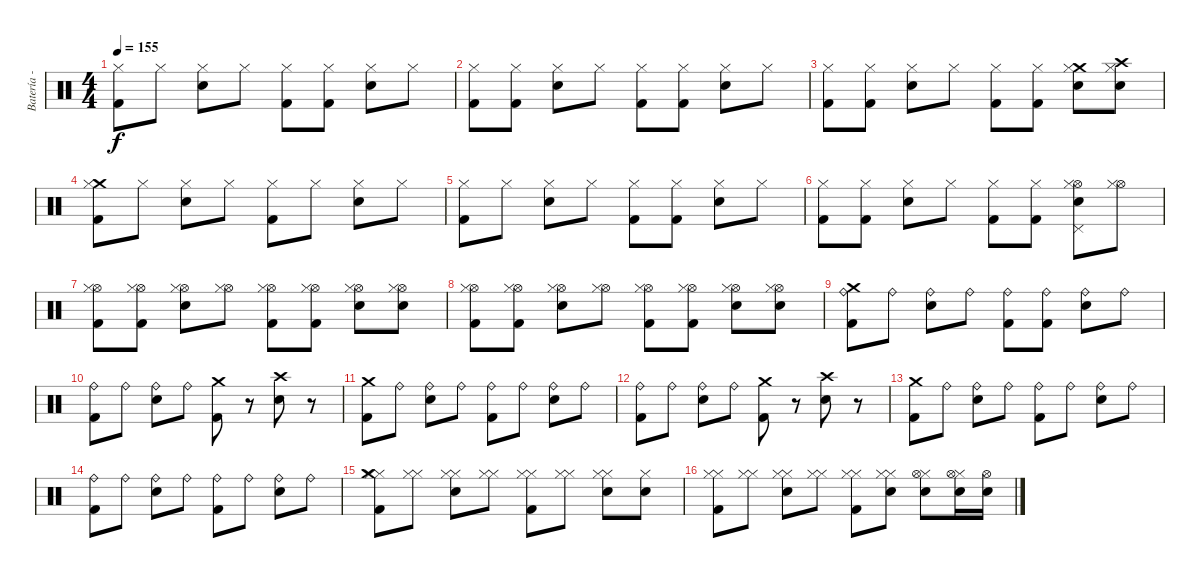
\track ("Batería - Edu" "Batería - ") {instrument percussion}
\staff {score}
\articulation defaults
\ts (4 4)
\tempo 155
\clef neutral
\ks c
("Kick (hit) 2" "Hi-Hat (closed)").8{dy f} "Hi-Hat (closed)".8 ("Electric Snare (hit)" "Hi-Hat (closed)").8 "Hi-Hat (closed)".8 ("Kick (hit) 2" "Hi-Hat (closed)").8 ("Kick (hit) 2" "Hi-Hat (closed)").8 ("Electric Snare (hit)" "Hi-Hat (closed)").8 "Hi-Hat (closed)".8 |
("Kick (hit) 2" "Hi-Hat (closed)").8 ("Kick (hit) 2" "Hi-Hat (closed)").8 ("Electric Snare (hit)" "Hi-Hat (closed)").8 "Hi-Hat (closed)".8 ("Kick (hit) 2" "Hi-Hat (closed)").8 ("Kick (hit) 2" "Hi-Hat (closed)").8 ("Electric Snare (hit)" "Hi-Hat (closed)").8 "Hi-Hat (closed)".8 |
("Kick (hit) 2" "Hi-Hat (closed)").8 ("Kick (hit) 2" "Hi-Hat (closed)").8 ("Electric Snare (hit)" "Hi-Hat (closed)").8 "Hi-Hat (closed)".8 ("Kick (hit) 2" "Hi-Hat (closed)").8 ("Kick (hit) 2" "Hi-Hat (closed)").8 ("Crash medium (hit)" "Electric Snare (hit)" "Hi-Hat (closed)").8 ("Crash high (hit)" "Electric Snare (hit)" "Hi-Hat (closed)").8 |
("Crash medium (hit)" "Kick (hit) 2" "Hi-Hat (closed)").8 "Hi-Hat (closed)".8 ("Electric Snare (hit)" "Hi-Hat (closed)").8 "Hi-Hat (closed)".8 ("Kick (hit) 2" "Hi-Hat (closed)").8 "Hi-Hat (closed)".8 ("Electric Snare (hit)" "Hi-Hat (closed)").8 "Hi-Hat (closed)".8 |
("Kick (hit) 2" "Hi-Hat (closed)").8 "Hi-Hat (closed)".8 ("Electric Snare (hit)" "Hi-Hat (closed)").8 "Hi-Hat (closed)".8 ("Kick (hit) 2" "Hi-Hat (closed)").8 ("Kick (hit) 2" "Hi-Hat (closed)").8 ("Electric Snare (hit)" "Hi-Hat (closed)").8 "Hi-Hat (closed)".8 |
("Kick (hit) 2" "Hi-Hat (closed)").8 ("Kick (hit) 2" "Hi-Hat (closed)").8 ("Electric Snare (hit)" "Hi-Hat (closed)").8 "Hi-Hat (closed)".8 ("Kick (hit) 2" "Hi-Hat (closed)").8 ("Kick (hit) 2" "Hi-Hat (closed)").8 ("Hi-Hat (open)" "Pedal Hi-Hat (hit)" "Electric Snare (hit)" "Hi-Hat (closed)").8 ("Hi-Hat (open)" "Hi-Hat (closed)").8 |
("Hi-Hat (open)" "Kick (hit) 2" "Hi-Hat (closed)").8 ("Hi-Hat (open)" "Kick (hit) 2" "Hi-Hat (closed)").8 ("Hi-Hat (open)" "Electric Snare (hit)" "Hi-Hat (closed)").8 ("Hi-Hat (open)" "Hi-Hat (closed)").8 ("Hi-Hat (open)" "Kick (hit) 2" "Hi-Hat (closed)").8 ("Hi-Hat (open)" "Kick (hit) 2" "Hi-Hat (closed)").8 ("Hi-Hat (open)" "Electric Snare (hit)" "Hi-Hat (closed)").8 ("Hi-Hat (open)" "Electric Snare (hit)" "Hi-Hat (closed)").8 |
("Hi-Hat (open)" "Kick (hit) 2" "Hi-Hat (closed)").8 ("Hi-Hat (open)" "Kick (hit) 2" "Hi-Hat (closed)").8 ("Hi-Hat (open)" "Electric Snare (hit)" "Hi-Hat (closed)").8 ("Hi-Hat (open)" "Hi-Hat (closed)").8 ("Hi-Hat (open)" "Kick (hit) 2" "Hi-Hat (closed)").8 ("Hi-Hat (open)" "Kick (hit) 2" "Hi-Hat (closed)").8 ("Hi-Hat (open)" "Electric Snare (hit)" "Hi-Hat (closed)").8 ("Hi-Hat (open)" "Electric Snare (hit)" "Hi-Hat (closed)").8 |
("Ride (bell)" "Crash medium (hit)" "Kick (hit) 2").8 "Ride (bell)".8 ("Ride (bell)" "Electric Snare (hit)").8 "Ride (bell)".8 ("Ride (bell)" "Kick (hit) 2").8 ("Ride (bell)" "Kick (hit) 2").8 ("Ride (bell)" "Electric Snare (hit)").8 "Ride (bell)".8 |
("Ride (bell)" "Kick (hit) 2").8 "Ride (bell)".8 ("Ride (bell)" "Electric Snare (hit)").8 "Ride (bell)".8 ("Crash medium (hit)" "Kick (hit) 2").8 r.8 ("Crash high (hit)" "Electric Snare (hit)").8 r.8 |
("Crash medium (hit)" "Kick (hit) 2").8 "Ride (bell)".8 ("Ride (bell)" "Electric Snare (hit)").8 "Ride (bell)".8 ("Ride (bell)" "Kick (hit) 2").8 "Ride (bell)".8 ("Ride (bell)" "Electric Snare (hit)").8 "Ride (bell)".8 |
("Ride (bell)" "Kick (hit) 2").8 "Ride (bell)".8 ("Ride (bell)" "Electric Snare (hit)").8 "Ride (bell)".8 ("Crash medium (hit)" "Kick (hit) 2").8 r.8 ("Crash high (hit)" "Electric Snare (hit)").8 r.8 |
("Crash medium (hit)" "Kick (hit) 2").8 "Ride (bell)".8 ("Ride (bell)" "Electric Snare (hit)").8 "Ride (bell)".8 ("Ride (bell)" "Kick (hit) 2").8 "Ride (bell)".8 ("Ride (bell)" "Electric Snare (hit)").8 "Ride (bell)".8 |
("Ride (bell)" "Kick (hit) 2").8 "Ride (bell)".8 ("Ride (bell)" "Electric Snare (hit)").8 "Ride (bell)".8 ("Ride (bell)" "Kick (hit) 2").8 "Ride (bell)".8 ("Ride (bell)" "Electric Snare (hit)").8 "Ride (bell)".8 |
("Hi-Hat (closed)" "Hi-Hat (closed)" "Crash medium (hit)" "Kick (hit) 2").8 ("Hi-Hat (closed)" "Hi-Hat (closed)").8 ("Hi-Hat (closed)" "Hi-Hat (closed)" "Electric Snare (hit)").8 ("Hi-Hat (closed)" "Hi-Hat (closed)").8 ("Hi-Hat (closed)" "Hi-Hat (closed)" "Kick (hit) 2").8 ("Hi-Hat (closed)" "Hi-Hat (closed)").8 ("Hi-Hat (closed)" "Hi-Hat (closed)" "Electric Snare (hit)").8 ("Hi-Hat (closed)" "Snare (hit)").8 |
("Hi-Hat (closed)" "Hi-Hat (closed)" "Kick (hit) 2").8 ("Hi-Hat (closed)" "Hi-Hat (closed)").8 ("Hi-Hat (closed)" "Hi-Hat (closed)" "Electric Snare (hit)").8 ("Hi-Hat (closed)" "Hi-Hat (closed)").8 ("Hi-Hat (closed)" "Hi-Hat (closed)" "Kick (hit) 2").8 ("Hi-Hat (closed)" "Hi-Hat (closed)" "Electric Snare (hit)").8 ("Hi-Hat (closed)" "Hi-Hat (open)" "Electric Snare (hit)").8 ("Hi-Hat (closed)" "Hi-Hat (open)" "Electric Snare (hit)").16 ("Hi-Hat (open)" "Snare (hit) 2").16
